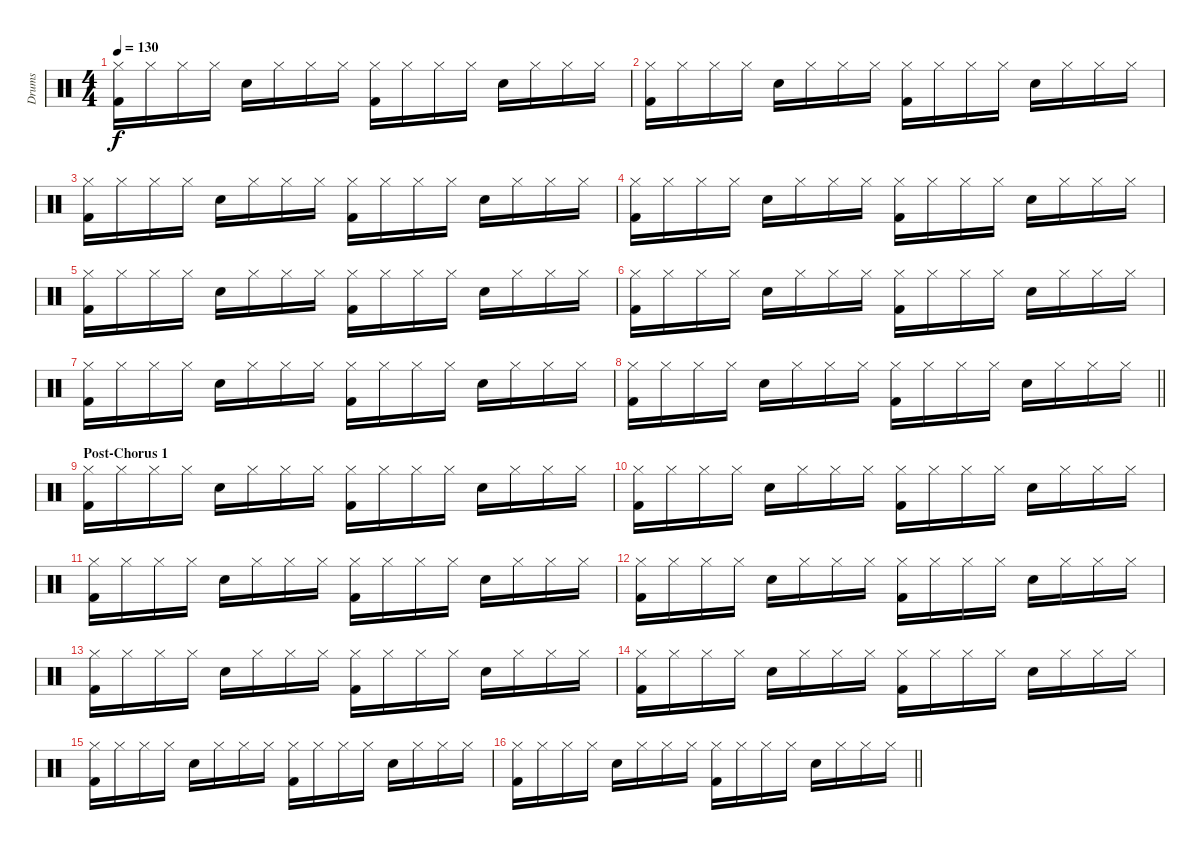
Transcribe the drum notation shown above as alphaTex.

\track ("Drums" "Drums") {instrument percussion}
\staff {score}
\articulation defaults
\ts (4 4)
\tempo 130
\clef neutral
\ks c
("Hi-Hat (closed)" "Kick (hit) 2").16{dy f} "Hi-Hat (closed)".16 "Hi-Hat (closed)".16 "Hi-Hat (closed)".16 "Snare (hit) 2".16 "Hi-Hat (closed)".16 "Hi-Hat (closed)".16 "Hi-Hat (closed)".16 ("Hi-Hat (closed)" "Kick (hit) 2").16 "Hi-Hat (closed)".16 "Hi-Hat (closed)".16 "Hi-Hat (closed)".16 "Snare (hit) 2".16 "Hi-Hat (closed)".16 "Hi-Hat (closed)".16 "Hi-Hat (closed)".16 |
("Hi-Hat (closed)" "Kick (hit) 2").16 "Hi-Hat (closed)".16 "Hi-Hat (closed)".16 "Hi-Hat (closed)".16 "Snare (hit) 2".16 "Hi-Hat (closed)".16 "Hi-Hat (closed)".16 "Hi-Hat (closed)".16 ("Hi-Hat (closed)" "Kick (hit) 2").16 "Hi-Hat (closed)".16 "Hi-Hat (closed)".16 "Hi-Hat (closed)".16 "Snare (hit) 2".16 "Hi-Hat (closed)".16 "Hi-Hat (closed)".16 "Hi-Hat (closed)".16 |
("Hi-Hat (closed)" "Kick (hit) 2").16 "Hi-Hat (closed)".16 "Hi-Hat (closed)".16 "Hi-Hat (closed)".16 "Snare (hit) 2".16 "Hi-Hat (closed)".16 "Hi-Hat (closed)".16 "Hi-Hat (closed)".16 ("Hi-Hat (closed)" "Kick (hit) 2").16 "Hi-Hat (closed)".16 "Hi-Hat (closed)".16 "Hi-Hat (closed)".16 "Snare (hit) 2".16 "Hi-Hat (closed)".16 "Hi-Hat (closed)".16 "Hi-Hat (closed)".16 |
("Hi-Hat (closed)" "Kick (hit) 2").16 "Hi-Hat (closed)".16 "Hi-Hat (closed)".16 "Hi-Hat (closed)".16 "Snare (hit) 2".16 "Hi-Hat (closed)".16 "Hi-Hat (closed)".16 "Hi-Hat (closed)".16 ("Hi-Hat (closed)" "Kick (hit) 2").16 "Hi-Hat (closed)".16 "Hi-Hat (closed)".16 "Hi-Hat (closed)".16 "Snare (hit) 2".16 "Hi-Hat (closed)".16 "Hi-Hat (closed)".16 "Hi-Hat (closed)".16 |
("Hi-Hat (closed)" "Kick (hit) 2").16 "Hi-Hat (closed)".16 "Hi-Hat (closed)".16 "Hi-Hat (closed)".16 "Snare (hit) 2".16 "Hi-Hat (closed)".16 "Hi-Hat (closed)".16 "Hi-Hat (closed)".16 ("Hi-Hat (closed)" "Kick (hit) 2").16 "Hi-Hat (closed)".16 "Hi-Hat (closed)".16 "Hi-Hat (closed)".16 "Snare (hit) 2".16 "Hi-Hat (closed)".16 "Hi-Hat (closed)".16 "Hi-Hat (closed)".16 |
("Hi-Hat (closed)" "Kick (hit) 2").16 "Hi-Hat (closed)".16 "Hi-Hat (closed)".16 "Hi-Hat (closed)".16 "Snare (hit) 2".16 "Hi-Hat (closed)".16 "Hi-Hat (closed)".16 "Hi-Hat (closed)".16 ("Hi-Hat (closed)" "Kick (hit) 2").16 "Hi-Hat (closed)".16 "Hi-Hat (closed)".16 "Hi-Hat (closed)".16 "Snare (hit) 2".16 "Hi-Hat (closed)".16 "Hi-Hat (closed)".16 "Hi-Hat (closed)".16 |
("Hi-Hat (closed)" "Kick (hit) 2").16 "Hi-Hat (closed)".16 "Hi-Hat (closed)".16 "Hi-Hat (closed)".16 "Snare (hit) 2".16 "Hi-Hat (closed)".16 "Hi-Hat (closed)".16 "Hi-Hat (closed)".16 ("Hi-Hat (closed)" "Kick (hit) 2").16 "Hi-Hat (closed)".16 "Hi-Hat (closed)".16 "Hi-Hat (closed)".16 "Snare (hit) 2".16 "Hi-Hat (closed)".16 "Hi-Hat (closed)".16 "Hi-Hat (closed)".16 |
\barLineRight lightlight
("Hi-Hat (closed)" "Kick (hit) 2").16 "Hi-Hat (closed)".16 "Hi-Hat (closed)".16 "Hi-Hat (closed)".16 "Snare (hit) 2".16 "Hi-Hat (closed)".16 "Hi-Hat (closed)".16 "Hi-Hat (closed)".16 ("Hi-Hat (closed)" "Kick (hit) 2").16 "Hi-Hat (closed)".16 "Hi-Hat (closed)".16 "Hi-Hat (closed)".16 "Snare (hit) 2".16 "Hi-Hat (closed)".16 "Hi-Hat (closed)".16 "Hi-Hat (closed)".16 |
\section ("" "Post-Chorus 1")
("Hi-Hat (closed)" "Kick (hit) 2").16 "Hi-Hat (closed)".16 "Hi-Hat (closed)".16 "Hi-Hat (closed)".16 "Snare (hit) 2".16 "Hi-Hat (closed)".16 "Hi-Hat (closed)".16 "Hi-Hat (closed)".16 ("Hi-Hat (closed)" "Kick (hit) 2").16 "Hi-Hat (closed)".16 "Hi-Hat (closed)".16 "Hi-Hat (closed)".16 "Snare (hit) 2".16 "Hi-Hat (closed)".16 "Hi-Hat (closed)".16 "Hi-Hat (closed)".16 |
("Hi-Hat (closed)" "Kick (hit) 2").16 "Hi-Hat (closed)".16 "Hi-Hat (closed)".16 "Hi-Hat (closed)".16 "Snare (hit) 2".16 "Hi-Hat (closed)".16 "Hi-Hat (closed)".16 "Hi-Hat (closed)".16 ("Hi-Hat (closed)" "Kick (hit) 2").16 "Hi-Hat (closed)".16 "Hi-Hat (closed)".16 "Hi-Hat (closed)".16 "Snare (hit) 2".16 "Hi-Hat (closed)".16 "Hi-Hat (closed)".16 "Hi-Hat (closed)".16 |
("Hi-Hat (closed)" "Kick (hit) 2").16 "Hi-Hat (closed)".16 "Hi-Hat (closed)".16 "Hi-Hat (closed)".16 "Snare (hit) 2".16 "Hi-Hat (closed)".16 "Hi-Hat (closed)".16 "Hi-Hat (closed)".16 ("Hi-Hat (closed)" "Kick (hit) 2").16 "Hi-Hat (closed)".16 "Hi-Hat (closed)".16 "Hi-Hat (closed)".16 "Snare (hit) 2".16 "Hi-Hat (closed)".16 "Hi-Hat (closed)".16 "Hi-Hat (closed)".16 |
("Hi-Hat (closed)" "Kick (hit) 2").16 "Hi-Hat (closed)".16 "Hi-Hat (closed)".16 "Hi-Hat (closed)".16 "Snare (hit) 2".16 "Hi-Hat (closed)".16 "Hi-Hat (closed)".16 "Hi-Hat (closed)".16 ("Hi-Hat (closed)" "Kick (hit) 2").16 "Hi-Hat (closed)".16 "Hi-Hat (closed)".16 "Hi-Hat (closed)".16 "Snare (hit) 2".16 "Hi-Hat (closed)".16 "Hi-Hat (closed)".16 "Hi-Hat (closed)".16 |
("Hi-Hat (closed)" "Kick (hit) 2").16 "Hi-Hat (closed)".16 "Hi-Hat (closed)".16 "Hi-Hat (closed)".16 "Snare (hit) 2".16 "Hi-Hat (closed)".16 "Hi-Hat (closed)".16 "Hi-Hat (closed)".16 ("Hi-Hat (closed)" "Kick (hit) 2").16 "Hi-Hat (closed)".16 "Hi-Hat (closed)".16 "Hi-Hat (closed)".16 "Snare (hit) 2".16 "Hi-Hat (closed)".16 "Hi-Hat (closed)".16 "Hi-Hat (closed)".16 |
("Hi-Hat (closed)" "Kick (hit) 2").16 "Hi-Hat (closed)".16 "Hi-Hat (closed)".16 "Hi-Hat (closed)".16 "Snare (hit) 2".16 "Hi-Hat (closed)".16 "Hi-Hat (closed)".16 "Hi-Hat (closed)".16 ("Hi-Hat (closed)" "Kick (hit) 2").16 "Hi-Hat (closed)".16 "Hi-Hat (closed)".16 "Hi-Hat (closed)".16 "Snare (hit) 2".16 "Hi-Hat (closed)".16 "Hi-Hat (closed)".16 "Hi-Hat (closed)".16 |
("Hi-Hat (closed)" "Kick (hit) 2").16 "Hi-Hat (closed)".16 "Hi-Hat (closed)".16 "Hi-Hat (closed)".16 "Snare (hit) 2".16 "Hi-Hat (closed)".16 "Hi-Hat (closed)".16 "Hi-Hat (closed)".16 ("Hi-Hat (closed)" "Kick (hit) 2").16 "Hi-Hat (closed)".16 "Hi-Hat (closed)".16 "Hi-Hat (closed)".16 "Snare (hit) 2".16 "Hi-Hat (closed)".16 "Hi-Hat (closed)".16 "Hi-Hat (closed)".16 |
\barLineRight lightlight
("Hi-Hat (closed)" "Kick (hit) 2").16 "Hi-Hat (closed)".16 "Hi-Hat (closed)".16 "Hi-Hat (closed)".16 "Snare (hit) 2".16 "Hi-Hat (closed)".16 "Hi-Hat (closed)".16 "Hi-Hat (closed)".16 ("Hi-Hat (closed)" "Kick (hit) 2").16 "Hi-Hat (closed)".16 "Hi-Hat (closed)".16 "Hi-Hat (closed)".16 "Snare (hit) 2".16 "Hi-Hat (closed)".16 "Hi-Hat (closed)".16 "Hi-Hat (closed)".16
